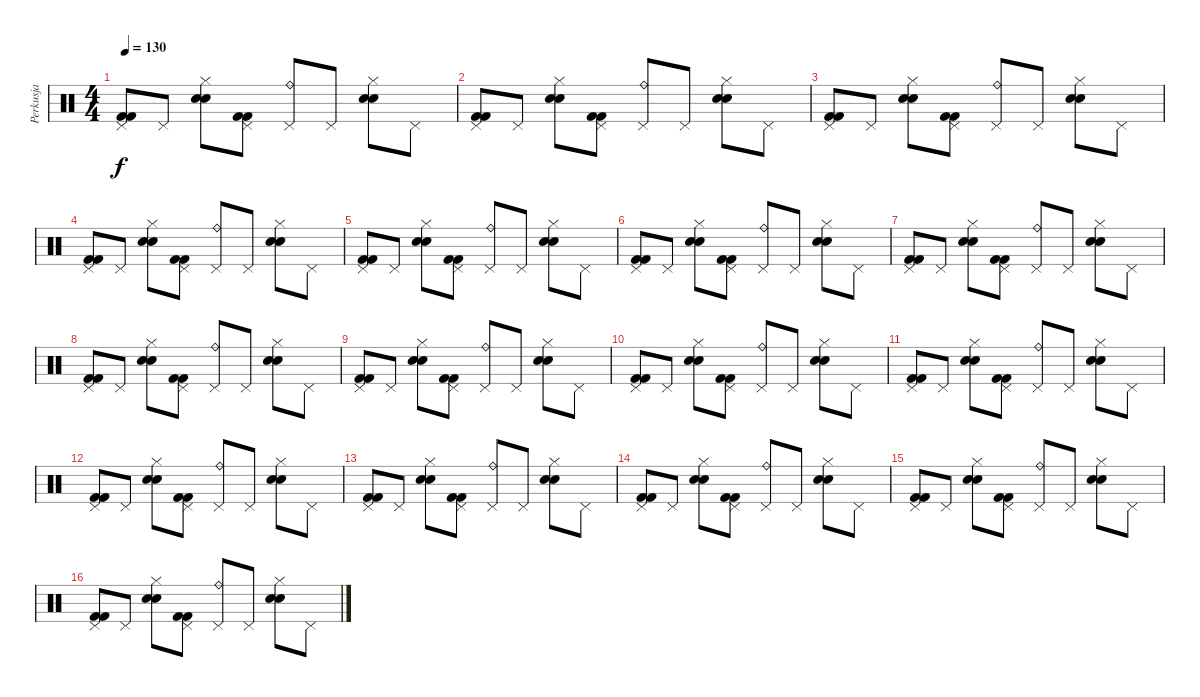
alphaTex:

\track ("Perkusja" "Perkusja") {instrument percussion}
\staff {score}
\articulation defaults
\ts (4 4)
\tempo 130
\clef neutral
\ks c
("Pedal Hi-Hat (hit)" "Kick (hit) 2" "Kick (hit) 2").8{dy f} "Pedal Hi-Hat (hit)".8 ("Hi-Hat (closed)" "Electric Snare (hit)" "Electric Snare (hit)").8 ("Pedal Hi-Hat (hit)" "Kick (hit) 2" "Kick (hit) 2").8 ("Ride (bell)" "Pedal Hi-Hat (hit)").8 "Pedal Hi-Hat (hit)".8 ("Hi-Hat (closed)" "Electric Snare (hit)" "Electric Snare (hit)").8 "Pedal Hi-Hat (hit)".8 |
("Pedal Hi-Hat (hit)" "Kick (hit) 2" "Kick (hit) 2").8 "Pedal Hi-Hat (hit)".8 ("Hi-Hat (closed)" "Electric Snare (hit)" "Electric Snare (hit)").8 ("Pedal Hi-Hat (hit)" "Kick (hit) 2" "Kick (hit) 2").8 ("Ride (bell)" "Pedal Hi-Hat (hit)").8 "Pedal Hi-Hat (hit)".8 ("Hi-Hat (closed)" "Electric Snare (hit)" "Electric Snare (hit)").8 "Pedal Hi-Hat (hit)".8 |
("Pedal Hi-Hat (hit)" "Kick (hit) 2" "Kick (hit) 2").8 "Pedal Hi-Hat (hit)".8 ("Hi-Hat (closed)" "Electric Snare (hit)" "Electric Snare (hit)").8 ("Pedal Hi-Hat (hit)" "Kick (hit) 2" "Kick (hit) 2").8 ("Ride (bell)" "Pedal Hi-Hat (hit)").8 "Pedal Hi-Hat (hit)".8 ("Hi-Hat (closed)" "Electric Snare (hit)" "Electric Snare (hit)").8 "Pedal Hi-Hat (hit)".8 |
("Pedal Hi-Hat (hit)" "Kick (hit) 2" "Kick (hit) 2").8 "Pedal Hi-Hat (hit)".8 ("Hi-Hat (closed)" "Electric Snare (hit)" "Electric Snare (hit)").8 ("Pedal Hi-Hat (hit)" "Kick (hit) 2" "Kick (hit) 2").8 ("Ride (bell)" "Pedal Hi-Hat (hit)").8 "Pedal Hi-Hat (hit)".8 ("Hi-Hat (closed)" "Electric Snare (hit)" "Electric Snare (hit)").8 "Pedal Hi-Hat (hit)".8 |
("Pedal Hi-Hat (hit)" "Kick (hit) 2" "Kick (hit) 2").8 "Pedal Hi-Hat (hit)".8 ("Hi-Hat (closed)" "Electric Snare (hit)" "Electric Snare (hit)").8 ("Pedal Hi-Hat (hit)" "Kick (hit) 2" "Kick (hit) 2").8 ("Ride (bell)" "Pedal Hi-Hat (hit)").8 "Pedal Hi-Hat (hit)".8 ("Hi-Hat (closed)" "Electric Snare (hit)" "Electric Snare (hit)").8 "Pedal Hi-Hat (hit)".8 |
("Pedal Hi-Hat (hit)" "Kick (hit) 2" "Kick (hit) 2").8 "Pedal Hi-Hat (hit)".8 ("Hi-Hat (closed)" "Electric Snare (hit)" "Electric Snare (hit)").8 ("Pedal Hi-Hat (hit)" "Kick (hit) 2" "Kick (hit) 2").8 ("Ride (bell)" "Pedal Hi-Hat (hit)").8 "Pedal Hi-Hat (hit)".8 ("Hi-Hat (closed)" "Electric Snare (hit)" "Electric Snare (hit)").8 "Pedal Hi-Hat (hit)".8 |
("Pedal Hi-Hat (hit)" "Kick (hit) 2" "Kick (hit) 2").8 "Pedal Hi-Hat (hit)".8 ("Hi-Hat (closed)" "Electric Snare (hit)" "Electric Snare (hit)").8 ("Pedal Hi-Hat (hit)" "Kick (hit) 2" "Kick (hit) 2").8 ("Ride (bell)" "Pedal Hi-Hat (hit)").8 "Pedal Hi-Hat (hit)".8 ("Hi-Hat (closed)" "Electric Snare (hit)" "Electric Snare (hit)").8 "Pedal Hi-Hat (hit)".8 |
("Pedal Hi-Hat (hit)" "Kick (hit) 2" "Kick (hit) 2").8 "Pedal Hi-Hat (hit)".8 ("Hi-Hat (closed)" "Electric Snare (hit)" "Electric Snare (hit)").8 ("Pedal Hi-Hat (hit)" "Kick (hit) 2" "Kick (hit) 2").8 ("Ride (bell)" "Pedal Hi-Hat (hit)").8 "Pedal Hi-Hat (hit)".8 ("Hi-Hat (closed)" "Electric Snare (hit)" "Electric Snare (hit)").8 "Pedal Hi-Hat (hit)".8 |
("Pedal Hi-Hat (hit)" "Kick (hit) 2" "Kick (hit) 2").8 "Pedal Hi-Hat (hit)".8 ("Hi-Hat (closed)" "Electric Snare (hit)" "Electric Snare (hit)").8 ("Pedal Hi-Hat (hit)" "Kick (hit) 2" "Kick (hit) 2").8 ("Ride (bell)" "Pedal Hi-Hat (hit)").8 "Pedal Hi-Hat (hit)".8 ("Hi-Hat (closed)" "Electric Snare (hit)" "Electric Snare (hit)").8 "Pedal Hi-Hat (hit)".8 |
("Pedal Hi-Hat (hit)" "Kick (hit) 2" "Kick (hit) 2").8 "Pedal Hi-Hat (hit)".8 ("Hi-Hat (closed)" "Electric Snare (hit)" "Electric Snare (hit)").8 ("Pedal Hi-Hat (hit)" "Kick (hit) 2" "Kick (hit) 2").8 ("Ride (bell)" "Pedal Hi-Hat (hit)").8 "Pedal Hi-Hat (hit)".8 ("Hi-Hat (closed)" "Electric Snare (hit)" "Electric Snare (hit)").8 "Pedal Hi-Hat (hit)".8 |
("Pedal Hi-Hat (hit)" "Kick (hit) 2" "Kick (hit) 2").8 "Pedal Hi-Hat (hit)".8 ("Hi-Hat (closed)" "Electric Snare (hit)" "Electric Snare (hit)").8 ("Pedal Hi-Hat (hit)" "Kick (hit) 2" "Kick (hit) 2").8 ("Ride (bell)" "Pedal Hi-Hat (hit)").8 "Pedal Hi-Hat (hit)".8 ("Hi-Hat (closed)" "Electric Snare (hit)" "Electric Snare (hit)").8 "Pedal Hi-Hat (hit)".8 |
("Pedal Hi-Hat (hit)" "Kick (hit) 2" "Kick (hit) 2").8 "Pedal Hi-Hat (hit)".8 ("Hi-Hat (closed)" "Electric Snare (hit)" "Electric Snare (hit)").8 ("Pedal Hi-Hat (hit)" "Kick (hit) 2" "Kick (hit) 2").8 ("Ride (bell)" "Pedal Hi-Hat (hit)").8 "Pedal Hi-Hat (hit)".8 ("Hi-Hat (closed)" "Electric Snare (hit)" "Electric Snare (hit)").8 "Pedal Hi-Hat (hit)".8 |
("Pedal Hi-Hat (hit)" "Kick (hit) 2" "Kick (hit) 2").8 "Pedal Hi-Hat (hit)".8 ("Hi-Hat (closed)" "Electric Snare (hit)" "Electric Snare (hit)").8 ("Pedal Hi-Hat (hit)" "Kick (hit) 2" "Kick (hit) 2").8 ("Ride (bell)" "Pedal Hi-Hat (hit)").8 "Pedal Hi-Hat (hit)".8 ("Hi-Hat (closed)" "Electric Snare (hit)" "Electric Snare (hit)").8 "Pedal Hi-Hat (hit)".8 |
("Pedal Hi-Hat (hit)" "Kick (hit) 2" "Kick (hit) 2").8 "Pedal Hi-Hat (hit)".8 ("Hi-Hat (closed)" "Electric Snare (hit)" "Electric Snare (hit)").8 ("Pedal Hi-Hat (hit)" "Kick (hit) 2" "Kick (hit) 2").8 ("Ride (bell)" "Pedal Hi-Hat (hit)").8 "Pedal Hi-Hat (hit)".8 ("Hi-Hat (closed)" "Electric Snare (hit)" "Electric Snare (hit)").8 "Pedal Hi-Hat (hit)".8 |
("Pedal Hi-Hat (hit)" "Kick (hit) 2" "Kick (hit) 2").8 "Pedal Hi-Hat (hit)".8 ("Hi-Hat (closed)" "Electric Snare (hit)" "Electric Snare (hit)").8 ("Pedal Hi-Hat (hit)" "Kick (hit) 2" "Kick (hit) 2").8 ("Ride (bell)" "Pedal Hi-Hat (hit)").8 "Pedal Hi-Hat (hit)".8 ("Hi-Hat (closed)" "Electric Snare (hit)" "Electric Snare (hit)").8 "Pedal Hi-Hat (hit)".8 |
("Pedal Hi-Hat (hit)" "Kick (hit) 2" "Kick (hit) 2").8 "Pedal Hi-Hat (hit)".8 ("Hi-Hat (closed)" "Electric Snare (hit)" "Electric Snare (hit)").8 ("Pedal Hi-Hat (hit)" "Kick (hit) 2" "Kick (hit) 2").8 ("Ride (bell)" "Pedal Hi-Hat (hit)").8 "Pedal Hi-Hat (hit)".8 ("Hi-Hat (closed)" "Electric Snare (hit)" "Electric Snare (hit)").8 "Pedal Hi-Hat (hit)".8
